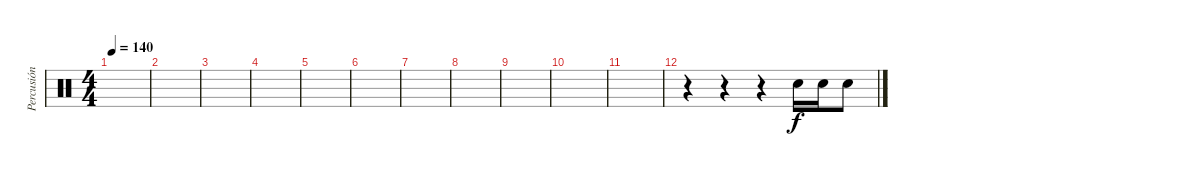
\track ("Percusión Fredy Caldas" "Percusión ") {instrument percussion}
\staff {score}
\articulation defaults
\ts (4 4)
\tempo 140
\clef neutral
\ks c
|
|
|
|
|
|
|
|
|
|
|
r.4 r.4 r.4 "Snare (hit) 2".16{dy f} "Snare (hit) 2".16 "Snare (hit) 2".8
